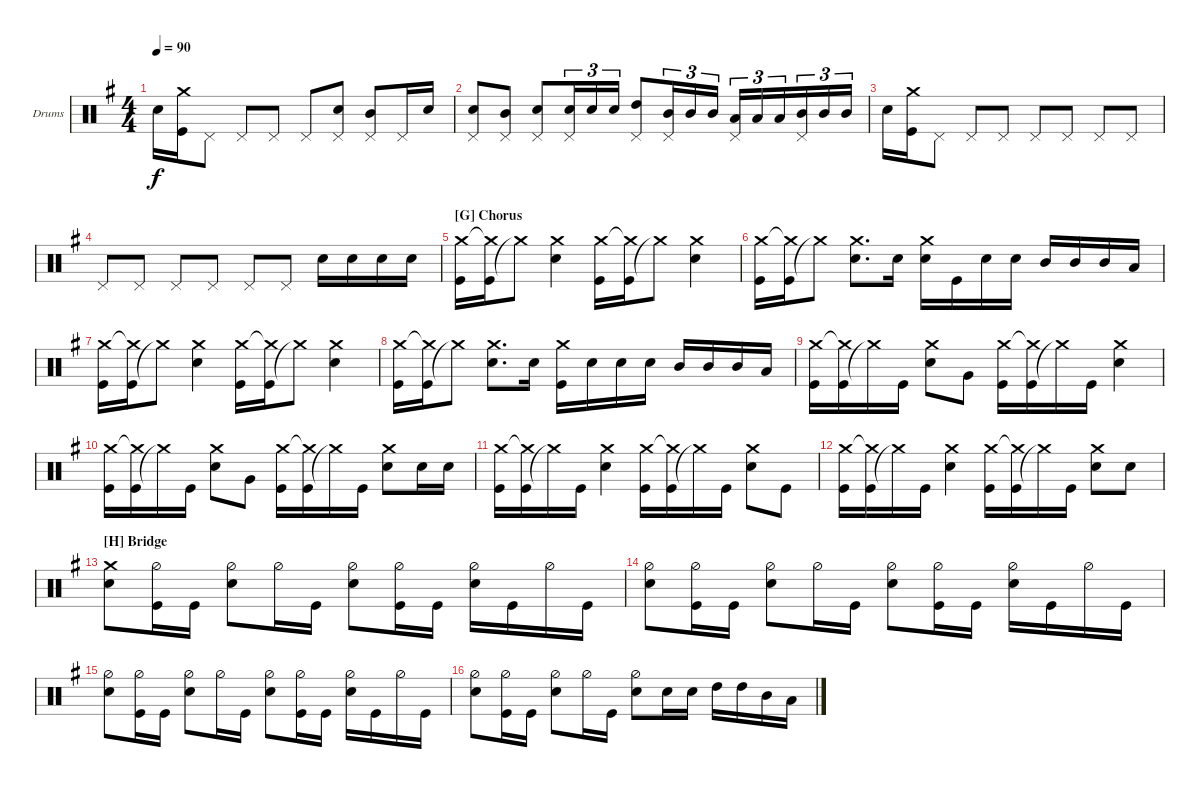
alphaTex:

\defaultSystemsLayout 4
\bracketExtendMode groupsimilarinstruments
\firstSystemTrackNameOrientation horizontal
\otherSystemsTrackNameOrientation horizontal
\track ("Matt Helders" "Drums") {multiBarRest instrument percussion}
\staff {score}
\articulation defaults
\ts (4 4)
\tempo 90
\clef neutral
\ks g "Snare (hit) 2".16{dy f}
("Kick (hit)" "Crash medium (hit)").16 "Pedal Hi-Hat (hit)".8 "Pedal Hi-Hat (hit)".8 "Pedal Hi-Hat (hit)".8 "Pedal Hi-Hat (hit)".8 ("Pedal Hi-Hat (hit)" "Snare (hit) 2").8 ("Pedal Hi-Hat (hit)" "Mid Tom (hit)").8 "Pedal Hi-Hat (hit)".16 "Snare (hit) 2".16 |
("Pedal Hi-Hat (hit)" "Snare (hit) 2").8 ("Pedal Hi-Hat (hit)" "Mid Tom (hit)").8 ("Pedal Hi-Hat (hit)" "Snare (hit) 2").8{beam merge} ("Snare (hit) 2" "Pedal Hi-Hat (hit)").16{tu (3 2) beam merge} "Snare (hit) 2".16{tu (3 2) beam merge} "Snare (hit) 2".16{tu (3 2)} ("High Tom (hit)" "Pedal Hi-Hat (hit)").8{beam merge} ("Mid Tom (hit)" "Pedal Hi-Hat (hit)").16{tu (3 2) beam merge} "Mid Tom (hit)".16{tu (3 2) beam merge} "Mid Tom (hit)".16{tu (3 2)} ("Low Tom (hit)" "Pedal Hi-Hat (hit)").16{tu (3 2) beam merge} "Low Tom (hit)".16{tu (3 2) beam merge} "Low Tom (hit)".16{tu (3 2) beam merge} ("Mid Tom (hit)" "Pedal Hi-Hat (hit)").16{tu (3 2) beam merge} "Mid Tom (hit)".16{tu (3 2) beam merge} "Mid Tom (hit)".16{tu (3 2)} |
"Snare (hit) 2".16 ("Kick (hit)" "Crash medium (hit)").16 "Pedal Hi-Hat (hit)".8 "Pedal Hi-Hat (hit)".8 "Pedal Hi-Hat (hit)".8 "Pedal Hi-Hat (hit)".8 "Pedal Hi-Hat (hit)".8 "Pedal Hi-Hat (hit)".8 "Pedal Hi-Hat (hit)".8 |
"Pedal Hi-Hat (hit)".8 "Pedal Hi-Hat (hit)".8 "Pedal Hi-Hat (hit)".8 "Pedal Hi-Hat (hit)".8 "Pedal Hi-Hat (hit)".8 "Pedal Hi-Hat (hit)".8 "Snare (hit) 2".16 "Snare (hit) 2".16 "Snare (hit) 2".16 "Snare (hit) 2".16 |
\section ("G" "Chorus")
("Kick (hit)" "Crash medium (hit)").16 ("Kick (hit)" "Crash medium (hit)"{t}).16 "Crash medium (hit)"{t}.8 ("Snare (hit) 2" "Crash medium (hit)").4 ("Kick (hit)" "Crash medium (hit)").16 ("Kick (hit)" "Crash medium (hit)"{t}).16 "Crash medium (hit)"{t}.8 ("Snare (hit) 2" "Crash medium (hit)").4 |
("Kick (hit)" "Crash medium (hit)").16 ("Kick (hit)" "Crash medium (hit)"{t}).16 "Crash medium (hit)"{t}.8 ("Snare (hit) 2" "Crash medium (hit)").8{d} "Snare (hit) 2".16 ("Crash medium (hit)" "Snare (hit) 2").16 "Kick (hit)".16 "Snare (hit) 2".16 "Snare (hit) 2".16 "Mid Tom (hit)".16 "Mid Tom (hit)".16 "Mid Tom (hit)".16 "Low Tom (hit)".16 |
("Kick (hit)" "Crash medium (hit)").16 ("Kick (hit)" "Crash medium (hit)"{t}).16 "Crash medium (hit)"{t}.8 ("Snare (hit) 2" "Crash medium (hit)").4 ("Kick (hit)" "Crash medium (hit)").16 ("Kick (hit)" "Crash medium (hit)"{t}).16 "Crash medium (hit)"{t}.8 ("Snare (hit) 2" "Crash medium (hit)").4 |
("Kick (hit)" "Crash medium (hit)").16 ("Kick (hit)" "Crash medium (hit)"{t}).16 "Crash medium (hit)"{t}.8 ("Snare (hit) 2" "Crash medium (hit)").8{d} "Snare (hit) 2".16 ("Crash medium (hit)" "Kick (hit)").16 "Snare (hit) 2".16 "Snare (hit) 2".16 "Snare (hit) 2".16 "Mid Tom (hit)".16 "Mid Tom (hit)".16 "Mid Tom (hit)".16 "Low Tom (hit)".16 |
("Kick (hit)" "Crash medium (hit)").16 ("Kick (hit)" "Crash medium (hit)"{t}).16 "Crash medium (hit)"{t}.16 "Kick (hit)".16 ("Snare (hit) 2" "Crash medium (hit)").8 "Very Low Tom (hit)".8 ("Kick (hit)" "Crash medium (hit)").16 ("Kick (hit)" "Crash medium (hit)"{t}).16 "Crash medium (hit)"{t}.16 "Kick (hit)".16 ("Snare (hit) 2" "Crash medium (hit)").4 |
("Kick (hit)" "Crash medium (hit)").16 ("Kick (hit)" "Crash medium (hit)"{t}).16 "Crash medium (hit)"{t}.16 "Kick (hit)".16 ("Snare (hit) 2" "Crash medium (hit)").8 "Very Low Tom (hit)".8 ("Kick (hit)" "Crash medium (hit)").16 ("Kick (hit)" "Crash medium (hit)"{t}).16 "Crash medium (hit)"{t}.16 "Kick (hit)".16 ("Snare (hit) 2" "Crash medium (hit)").8 "Snare (hit) 2".16 "Snare (hit) 2".16 |
("Kick (hit)" "Crash medium (hit)").16 ("Kick (hit)" "Crash medium (hit)"{t}).16 "Crash medium (hit)"{t}.16 "Kick (hit)".16 ("Snare (hit) 2" "Crash medium (hit)").4 ("Kick (hit)" "Crash medium (hit)").16 ("Kick (hit)" "Crash medium (hit)"{t}).16 "Crash medium (hit)"{t}.16 "Kick (hit)".16 ("Snare (hit) 2" "Crash medium (hit)").8 "Kick (hit)".8 |
("Kick (hit)" "Crash medium (hit)").16 ("Kick (hit)" "Crash medium (hit)"{t}).16 "Crash medium (hit)"{t}.16 "Kick (hit)".16 ("Snare (hit) 2" "Crash medium (hit)").4 ("Kick (hit)" "Crash medium (hit)").16 ("Kick (hit)" "Crash medium (hit)"{t}).16 "Crash medium (hit)"{t}.16 "Kick (hit)".16 ("Snare (hit) 2" "Crash medium (hit)").8 "Snare (hit) 2".8 |
\section ("H" "Bridge")
("Snare (hit) 2" "Crash medium (hit)").8 ("Kick (hit)" "Hi-Hat (half)").16 "Kick (hit)".16 ("Snare (hit) 2" "Hi-Hat (half)").8 "Hi-Hat (half)".16 "Kick (hit)".16 ("Snare (hit) 2" "Hi-Hat (half)").8 ("Kick (hit)" "Hi-Hat (half)").16 "Kick (hit)".16 ("Snare (hit) 2" "Hi-Hat (half)").16 "Kick (hit)".16 "Hi-Hat (half)".16 "Kick (hit)".16 |
("Snare (hit) 2" "Hi-Hat (half)").8 ("Kick (hit)" "Hi-Hat (half)").16 "Kick (hit)".16 ("Snare (hit) 2" "Hi-Hat (half)").8 "Hi-Hat (half)".16 "Kick (hit)".16 ("Snare (hit) 2" "Hi-Hat (half)").8 ("Kick (hit)" "Hi-Hat (half)").16 "Kick (hit)".16 ("Snare (hit) 2" "Hi-Hat (half)").16 "Kick (hit)".16 "Hi-Hat (half)".16 "Kick (hit)".16 |
("Snare (hit) 2" "Hi-Hat (half)").8 ("Kick (hit)" "Hi-Hat (half)").16 "Kick (hit)".16 ("Snare (hit) 2" "Hi-Hat (half)").8 "Hi-Hat (half)".16 "Kick (hit)".16 ("Snare (hit) 2" "Hi-Hat (half)").8 ("Kick (hit)" "Hi-Hat (half)").16 "Kick (hit)".16 ("Snare (hit) 2" "Hi-Hat (half)").16 "Kick (hit)".16 "Hi-Hat (half)".16 "Kick (hit)".16 |
("Snare (hit) 2" "Hi-Hat (half)").8 ("Kick (hit)" "Hi-Hat (half)").16 "Kick (hit)".16 ("Snare (hit) 2" "Hi-Hat (half)").8 "Hi-Hat (half)".16 "Kick (hit)".16 ("Snare (hit) 2" "Hi-Hat (half)").8 "Snare (hit) 2".16 "Snare (hit) 2".16 "High Tom (hit)".16 "High Tom (hit)".16 "Mid Tom (hit)".16 "Low Tom (hit)".16
